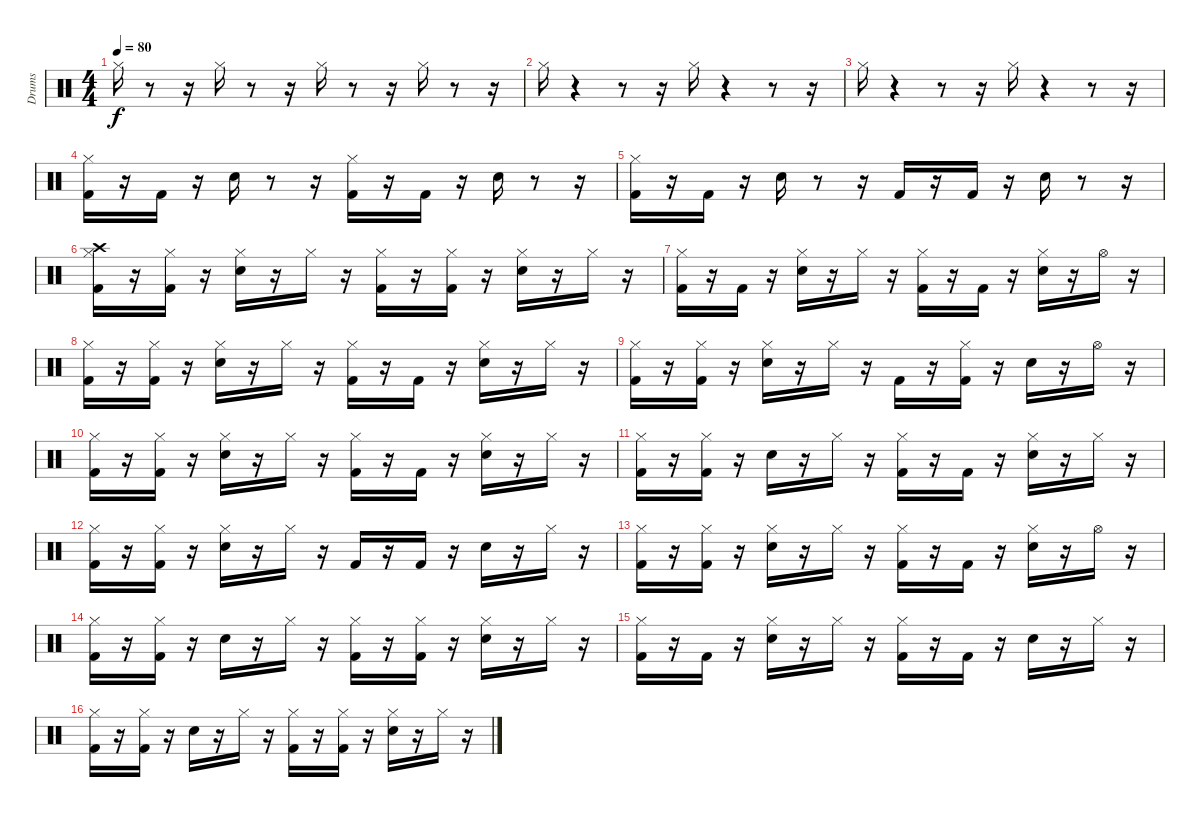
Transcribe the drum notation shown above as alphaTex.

\track ("Drums" "Drums") {instrument percussion}
\staff {score}
\articulation defaults
\ts (4 4)
\tempo 80
\clef neutral
\ks c "Hi-Hat (closed)".16{dy f}
r.8 r.16 "Hi-Hat (closed)".16 r.8 r.16 "Hi-Hat (closed)".16 r.8 r.16 "Hi-Hat (closed)".16 r.8 r.16 |
"Hi-Hat (closed)".16 r.4 r.8 r.16 "Hi-Hat (closed)".16 r.4 r.8 r.16 |
"Hi-Hat (closed)".16 r.4 r.8 r.16 "Hi-Hat (closed)".16 r.4 r.8 r.16 |
("Kick (hit) 2" "Hi-Hat (closed)").16 r.16 "Kick (hit) 2".16 r.16 "Snare (hit) 2".16 r.8 r.16 ("Kick (hit) 2" "Hi-Hat (closed)").16 r.16 "Kick (hit) 2".16 r.16 "Snare (hit) 2".16 r.8 r.16 |
("Kick (hit) 2" "Hi-Hat (closed)").16 r.16 "Kick (hit) 2".16 r.16 "Snare (hit) 2".16 r.8 r.16 "Kick (hit) 2".16 r.16 "Kick (hit) 2".16 r.16 "Snare (hit) 2".16 r.8 r.16 |
("Kick (hit) 2" "Hi-Hat (closed)" "Crash high (hit)").16 r.16 ("Kick (hit) 2" "Hi-Hat (closed)").16 r.16 ("Snare (hit) 2" "Hi-Hat (closed)").16 r.16 "Hi-Hat (closed)".16 r.16 ("Kick (hit) 2" "Hi-Hat (closed)").16 r.16 ("Kick (hit) 2" "Hi-Hat (closed)").16 r.16 ("Snare (hit) 2" "Hi-Hat (closed)").16 r.16 "Hi-Hat (closed)".16 r.16 |
("Kick (hit) 2" "Hi-Hat (closed)").16 r.16 "Kick (hit) 2".16 r.16 ("Snare (hit) 2" "Hi-Hat (closed)").16 r.16 "Hi-Hat (closed)".16 r.16 ("Kick (hit) 2" "Hi-Hat (closed)").16 r.16 "Kick (hit) 2".16 r.16 ("Snare (hit) 2" "Hi-Hat (closed)").16 r.16 "Hi-Hat (open)".16 r.16 |
("Kick (hit) 2" "Hi-Hat (closed)").16 r.16 ("Kick (hit) 2" "Hi-Hat (closed)").16 r.16 ("Snare (hit) 2" "Hi-Hat (closed)").16 r.16 "Hi-Hat (closed)".16 r.16 ("Kick (hit) 2" "Hi-Hat (closed)").16 r.16 "Kick (hit) 2".16 r.16 ("Snare (hit) 2" "Hi-Hat (closed)").16 r.16 "Hi-Hat (closed)".16 r.16 |
("Kick (hit) 2" "Hi-Hat (closed)").16 r.16 ("Kick (hit) 2" "Hi-Hat (closed)").16 r.16 ("Snare (hit) 2" "Hi-Hat (closed)").16 r.16 "Hi-Hat (closed)".16 r.16 "Kick (hit) 2".16 r.16 ("Kick (hit) 2" "Hi-Hat (closed)").16 r.16 "Snare (hit) 2".16 r.16 "Hi-Hat (open)".16 r.16 |
("Kick (hit) 2" "Hi-Hat (closed)").16 r.16 ("Kick (hit) 2" "Hi-Hat (closed)").16 r.16 ("Snare (hit) 2" "Hi-Hat (closed)").16 r.16 "Hi-Hat (closed)".16 r.16 ("Kick (hit) 2" "Hi-Hat (closed)").16 r.16 "Kick (hit) 2".16 r.16 ("Snare (hit) 2" "Hi-Hat (closed)").16 r.16 "Hi-Hat (closed)".16 r.16 |
("Kick (hit) 2" "Hi-Hat (closed)").16 r.16 ("Kick (hit) 2" "Hi-Hat (closed)").16 r.16 "Snare (hit) 2".16 r.16 "Hi-Hat (closed)".16 r.16 ("Kick (hit) 2" "Hi-Hat (closed)").16 r.16 "Kick (hit) 2".16 r.16 ("Snare (hit) 2" "Hi-Hat (closed)").16 r.16 "Hi-Hat (closed)".16 r.16 |
("Kick (hit) 2" "Hi-Hat (closed)").16 r.16 ("Kick (hit) 2" "Hi-Hat (closed)").16 r.16 ("Snare (hit) 2" "Hi-Hat (closed)").16 r.16 "Hi-Hat (closed)".16 r.16 "Kick (hit) 2".16 r.16 "Kick (hit) 2".16 r.16 "Snare (hit) 2".16 r.16 "Hi-Hat (closed)".16 r.16 |
("Kick (hit) 2" "Hi-Hat (closed)").16 r.16 ("Kick (hit) 2" "Hi-Hat (closed)").16 r.16 ("Snare (hit) 2" "Hi-Hat (closed)").16 r.16 "Hi-Hat (closed)".16 r.16 ("Kick (hit) 2" "Hi-Hat (closed)").16 r.16 "Kick (hit) 2".16 r.16 ("Snare (hit) 2" "Hi-Hat (closed)").16 r.16 "Hi-Hat (open)".16 r.16 |
("Kick (hit) 2" "Hi-Hat (closed)").16 r.16 ("Kick (hit) 2" "Hi-Hat (closed)").16 r.16 "Snare (hit) 2".16 r.16 "Hi-Hat (closed)".16 r.16 ("Kick (hit) 2" "Hi-Hat (closed)").16 r.16 ("Kick (hit) 2" "Hi-Hat (closed)").16 r.16 ("Snare (hit) 2" "Hi-Hat (closed)").16 r.16 "Hi-Hat (closed)".16 r.16 |
("Kick (hit) 2" "Hi-Hat (closed)").16 r.16 "Kick (hit) 2".16 r.16 ("Snare (hit) 2" "Hi-Hat (closed)").16 r.16 "Hi-Hat (closed)".16 r.16 ("Kick (hit) 2" "Hi-Hat (closed)").16 r.16 "Kick (hit) 2".16 r.16 "Snare (hit) 2".16 r.16 "Hi-Hat (closed)".16 r.16 |
("Kick (hit) 2" "Hi-Hat (closed)").16 r.16 ("Kick (hit) 2" "Hi-Hat (closed)").16 r.16 "Snare (hit) 2".16 r.16 "Hi-Hat (closed)".16 r.16 ("Kick (hit) 2" "Hi-Hat (closed)").16 r.16 ("Kick (hit) 2" "Hi-Hat (closed)").16 r.16 ("Snare (hit) 2" "Hi-Hat (closed)").16 r.16 "Hi-Hat (closed)".16 r.16
